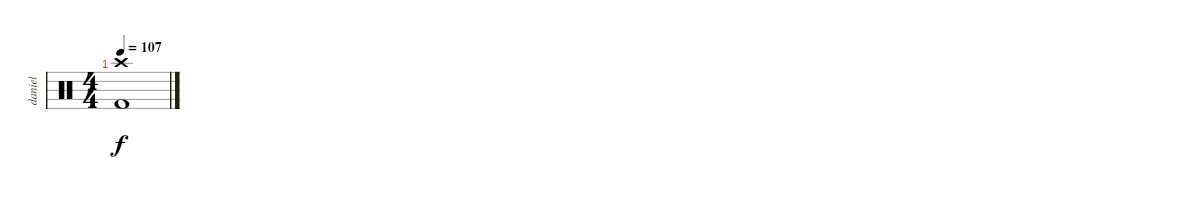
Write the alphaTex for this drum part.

\track ("daniel" "daniel") {instrument percussion}
\staff {score}
\articulation defaults
\ts (4 4)
\tempo 107
\clef neutral
\ks c
("Crash high (hit)" "Kick (hit) 2").1{dy f}
